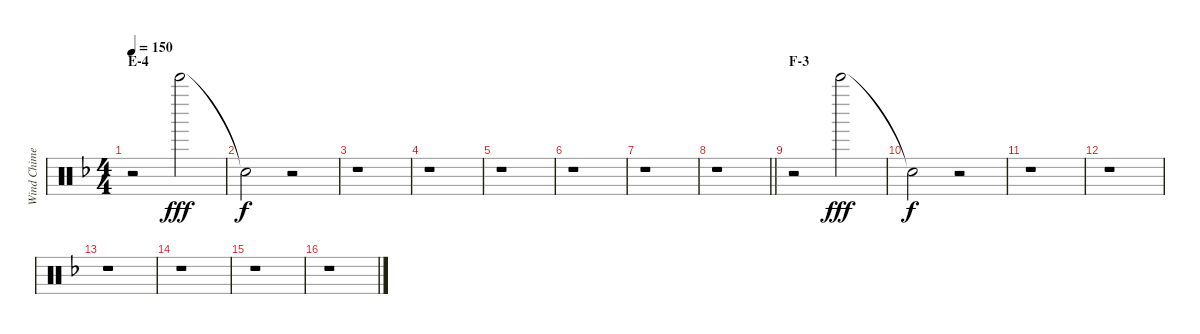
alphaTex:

\track ("Wind Chime" "Wind Chime") {instrument percussion}
\staff {score}
\articulation defaults
\ts (4 4)
\section ("" "E-4")
\tempo 150
\clef neutral
\ks f
r.2{dy f} "Bell Tree (hit)".2{dy fff} |
"Snare (hit)"{t}.2{dy f} r.2 |
r.1 |
r.1 |
r.1 |
r.1 |
r.1 |
\barLineRight lightlight
r.1 |
\section ("" "F-3")
r.2 "Bell Tree (hit)".2{dy fff} |
"Snare (hit)"{t}.2{dy f} r.2 |
r.1 |
r.1 |
r.1 |
r.1 |
r.1 |
r.1
